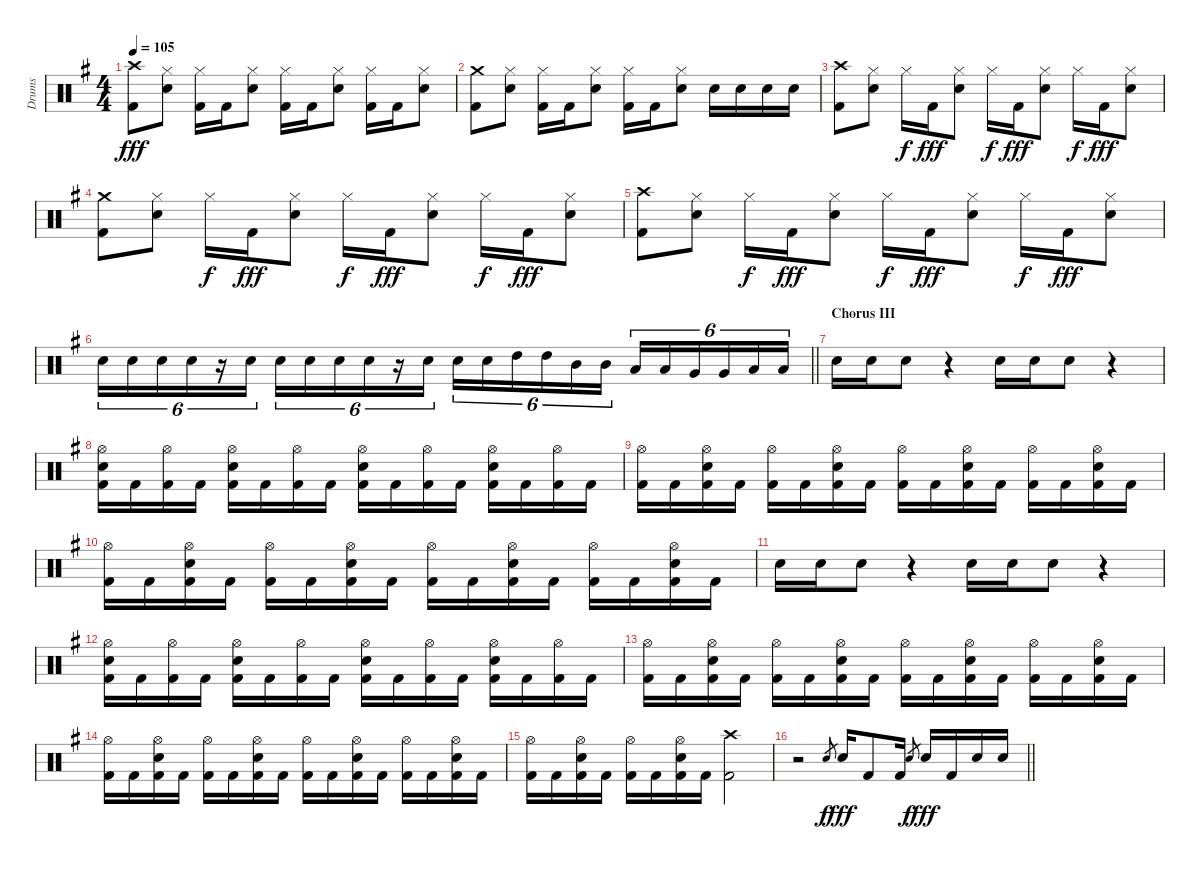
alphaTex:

\track ("Drums" "Drums") {instrument percussion}
\staff {score}
\articulation defaults
\ts (4 4)
\tempo 105
\clef neutral
\ks eminor
("Crash high (hit)" "Kick (hit) 2").8{dy fff} ("Hi-Hat (closed)" "Snare (hit) 2").8 ("Hi-Hat (closed)" "Kick (hit) 2").16 "Kick (hit) 2".16 ("Hi-Hat (closed)" "Snare (hit) 2").8 ("Hi-Hat (closed)" "Kick (hit) 2").16 "Kick (hit) 2".16 ("Hi-Hat (closed)" "Snare (hit) 2").8 ("Hi-Hat (closed)" "Kick (hit) 2").16 "Kick (hit) 2".16 ("Hi-Hat (closed)" "Snare (hit) 2").8 |
("Crash medium (hit)" "Kick (hit) 2").8 ("Hi-Hat (closed)" "Snare (hit) 2").8 ("Hi-Hat (closed)" "Kick (hit) 2").16 "Kick (hit) 2".16 ("Hi-Hat (closed)" "Snare (hit) 2").8 ("Hi-Hat (closed)" "Kick (hit) 2").16 "Kick (hit) 2".16 ("Hi-Hat (closed)" "Snare (hit) 2").8 "Snare (hit) 2".16 "Snare (hit) 2".16 "Snare (hit) 2".16 "Snare (hit) 2".16 |
("Crash high (hit)" "Kick (hit) 2").8 ("Hi-Hat (closed)" "Snare (hit) 2").8 "Hi-Hat (closed)".16{dy f} "Kick (hit) 2".16{dy fff} ("Hi-Hat (closed)" "Snare (hit) 2").8 "Hi-Hat (closed)".16{dy f} "Kick (hit) 2".16{dy fff} ("Hi-Hat (closed)" "Snare (hit) 2").8 "Hi-Hat (closed)".16{dy f} "Kick (hit) 2".16{dy fff} ("Hi-Hat (closed)" "Snare (hit) 2").8 |
("Crash medium (hit)" "Kick (hit) 2").8 ("Hi-Hat (closed)" "Snare (hit) 2").8 "Hi-Hat (closed)".16{dy f} "Kick (hit) 2".16{dy fff} ("Hi-Hat (closed)" "Snare (hit) 2").8 "Hi-Hat (closed)".16{dy f} "Kick (hit) 2".16{dy fff} ("Hi-Hat (closed)" "Snare (hit) 2").8 "Hi-Hat (closed)".16{dy f} "Kick (hit) 2".16{dy fff} ("Hi-Hat (closed)" "Snare (hit) 2").8 |
("Crash high (hit)" "Kick (hit) 2").8 ("Hi-Hat (closed)" "Snare (hit) 2").8 "Hi-Hat (closed)".16{dy f} "Kick (hit) 2".16{dy fff} ("Hi-Hat (closed)" "Snare (hit) 2").8 "Hi-Hat (closed)".16{dy f} "Kick (hit) 2".16{dy fff} ("Hi-Hat (closed)" "Snare (hit) 2").8 "Hi-Hat (closed)".16{dy f} "Kick (hit) 2".16{dy fff} ("Hi-Hat (closed)" "Snare (hit) 2").8 |
\barLineRight lightlight "Snare (hit) 2".16{tu (6 4)} "Snare (hit) 2".16{tu (6 4)} "Snare (hit) 2".16{tu (6 4)} "Snare (hit) 2".16{tu (6 4)}
r.16{tu (6 4)} "Snare (hit) 2".16{tu (6 4)} "Snare (hit) 2".16{tu (6 4)} "Snare (hit) 2".16{tu (6 4)} "Snare (hit) 2".16{tu (6 4)} "Snare (hit) 2".16{tu (6 4)} r.16{tu (6 4)} "Snare (hit) 2".16{tu (6 4)} "Snare (hit) 2".16{tu (6 4)} "Snare (hit) 2".16{tu (6 4)} "High Tom (hit)".16{tu (6 4)} "High Tom (hit)".16{tu (6 4)} "Mid Tom (hit)".16{tu (6 4)} "Mid Tom (hit)".16{tu (6 4)} "Low Tom (hit)".16{tu (6 4)} "Low Tom (hit)".16{tu (6 4)} "Very Low Tom (hit)".16{tu (6 4)} "Very Low Tom (hit)".16{tu (6 4)} "Low Floor Tom (hit)".16{tu (6 4)} "Low Floor Tom (hit)".16{tu (6 4)} |
\section ("" "Chorus III")
"Snare (hit) 2".16 "Snare (hit) 2".16 "Snare (hit) 2".8 r.4 "Snare (hit) 2".16 "Snare (hit) 2".16 "Snare (hit) 2".8 r.4 |
("Hi-Hat (open)" "Snare (hit) 2" "Kick (hit) 2").16 "Kick (hit) 2".16 ("Hi-Hat (open)" "Kick (hit) 2").16 "Kick (hit) 2".16 ("Hi-Hat (open)" "Snare (hit) 2" "Kick (hit) 2").16 "Kick (hit) 2".16 ("Hi-Hat (open)" "Kick (hit) 2").16 "Kick (hit) 2".16 ("Hi-Hat (open)" "Snare (hit) 2" "Kick (hit) 2").16 "Kick (hit) 2".16 ("Hi-Hat (open)" "Kick (hit) 2").16 "Kick (hit) 2".16 ("Hi-Hat (open)" "Snare (hit) 2" "Kick (hit) 2").16 "Kick (hit) 2".16 ("Hi-Hat (open)" "Kick (hit) 2").16 "Kick (hit) 2".16 |
("Hi-Hat (open)" "Kick (hit) 2").16 "Kick (hit) 2".16 ("Hi-Hat (open)" "Snare (hit) 2" "Kick (hit) 2").16 "Kick (hit) 2".16 ("Hi-Hat (open)" "Kick (hit) 2").16 "Kick (hit) 2".16 ("Hi-Hat (open)" "Snare (hit) 2" "Kick (hit) 2").16 "Kick (hit) 2".16 ("Hi-Hat (open)" "Kick (hit) 2").16 "Kick (hit) 2".16 ("Hi-Hat (open)" "Snare (hit) 2" "Kick (hit) 2").16 "Kick (hit) 2".16 ("Hi-Hat (open)" "Kick (hit) 2").16 "Kick (hit) 2".16 ("Hi-Hat (open)" "Snare (hit) 2" "Kick (hit) 2").16 "Kick (hit) 2".16 |
("Hi-Hat (open)" "Kick (hit) 2").16 "Kick (hit) 2".16 ("Hi-Hat (open)" "Snare (hit) 2" "Kick (hit) 2").16 "Kick (hit) 2".16 ("Hi-Hat (open)" "Kick (hit) 2").16 "Kick (hit) 2".16 ("Hi-Hat (open)" "Snare (hit) 2" "Kick (hit) 2").16 "Kick (hit) 2".16 ("Hi-Hat (open)" "Kick (hit) 2").16 "Kick (hit) 2".16 ("Hi-Hat (open)" "Snare (hit) 2" "Kick (hit) 2").16 "Kick (hit) 2".16 ("Hi-Hat (open)" "Kick (hit) 2").16 "Kick (hit) 2".16 ("Hi-Hat (open)" "Snare (hit) 2" "Kick (hit) 2").16 "Kick (hit) 2".16 |
"Snare (hit) 2".16 "Snare (hit) 2".16 "Snare (hit) 2".8 r.4 "Snare (hit) 2".16 "Snare (hit) 2".16 "Snare (hit) 2".8 r.4 |
("Hi-Hat (open)" "Snare (hit) 2" "Kick (hit) 2").16 "Kick (hit) 2".16 ("Hi-Hat (open)" "Kick (hit) 2").16 "Kick (hit) 2".16 ("Hi-Hat (open)" "Snare (hit) 2" "Kick (hit) 2").16 "Kick (hit) 2".16 ("Hi-Hat (open)" "Kick (hit) 2").16 "Kick (hit) 2".16 ("Hi-Hat (open)" "Snare (hit) 2" "Kick (hit) 2").16 "Kick (hit) 2".16 ("Hi-Hat (open)" "Kick (hit) 2").16 "Kick (hit) 2".16 ("Hi-Hat (open)" "Snare (hit) 2" "Kick (hit) 2").16 "Kick (hit) 2".16 ("Hi-Hat (open)" "Kick (hit) 2").16 "Kick (hit) 2".16 |
("Hi-Hat (open)" "Kick (hit) 2").16 "Kick (hit) 2".16 ("Hi-Hat (open)" "Snare (hit) 2" "Kick (hit) 2").16 "Kick (hit) 2".16 ("Hi-Hat (open)" "Kick (hit) 2").16 "Kick (hit) 2".16 ("Hi-Hat (open)" "Snare (hit) 2" "Kick (hit) 2").16 "Kick (hit) 2".16 ("Hi-Hat (open)" "Kick (hit) 2").16 "Kick (hit) 2".16 ("Hi-Hat (open)" "Snare (hit) 2" "Kick (hit) 2").16 "Kick (hit) 2".16 ("Hi-Hat (open)" "Kick (hit) 2").16 "Kick (hit) 2".16 ("Hi-Hat (open)" "Snare (hit) 2" "Kick (hit) 2").16 "Kick (hit) 2".16 |
("Hi-Hat (open)" "Kick (hit) 2").16 "Kick (hit) 2".16 ("Hi-Hat (open)" "Snare (hit) 2" "Kick (hit) 2").16 "Kick (hit) 2".16 ("Hi-Hat (open)" "Kick (hit) 2").16 "Kick (hit) 2".16 ("Hi-Hat (open)" "Snare (hit) 2" "Kick (hit) 2").16 "Kick (hit) 2".16 ("Hi-Hat (open)" "Kick (hit) 2").16 "Kick (hit) 2".16 ("Hi-Hat (open)" "Snare (hit) 2" "Kick (hit) 2").16 "Kick (hit) 2".16 ("Hi-Hat (open)" "Kick (hit) 2").16 "Kick (hit) 2".16 ("Hi-Hat (open)" "Snare (hit) 2" "Kick (hit) 2").16 "Kick (hit) 2".16 |
("Hi-Hat (open)" "Kick (hit) 2").16 "Kick (hit) 2".16 ("Hi-Hat (open)" "Snare (hit) 2" "Kick (hit) 2").16 "Kick (hit) 2".16 ("Hi-Hat (open)" "Kick (hit) 2").16 "Kick (hit) 2".16 ("Hi-Hat (open)" "Snare (hit) 2" "Kick (hit) 2").16 "Kick (hit) 2".16 ("Crash high (hit)" "Kick (hit) 2").2 |
\barLineRight lightlight
r.2 "Snare (hit) 2".8{gr dy f} "Snare (hit) 2".16{dy fff} "Kick (hit) 2".8 "Kick (hit) 2".16 "Snare (hit) 2".8{gr dy f} "Snare (hit) 2".16{dy fff} "Kick (hit) 2".16 "Snare (hit) 2".16 "Snare (hit) 2".16
